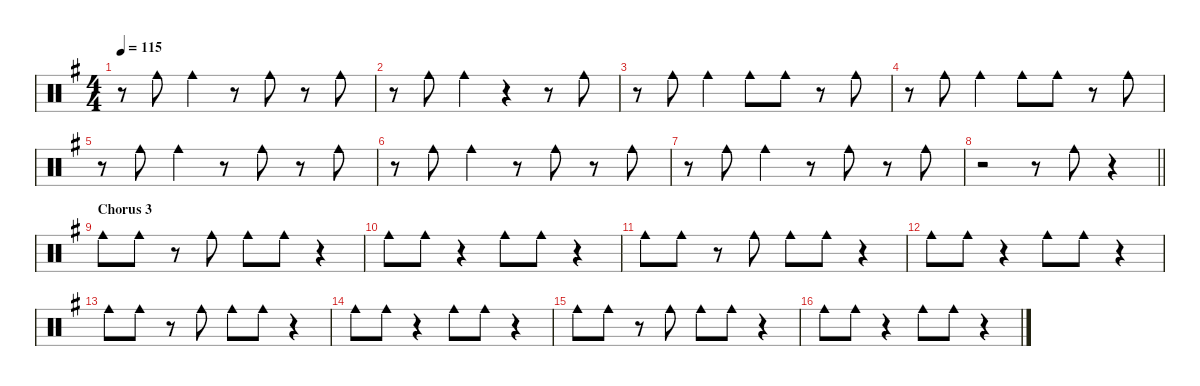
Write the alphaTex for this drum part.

\defaultSystemsLayout 8
\hideDynamics
\bracketExtendMode nobrackets
\singleTrackTrackNamePolicy hidden
\multiTrackTrackNamePolicy hidden
\otherSystemsTrackNameOrientation horizontal
\track ("Cowbell" "drm.") {defaultSystemsLayout 8 instrument percussion}
\staff {score}
\articulation defaults
\ts (4 4)
\tempo 115
\clef neutral
\ks g
r.8{dy f beam Down} "Cowbell medium (hit)"{acc forcenatural}.8{beam Down} "Cowbell medium (hit)"{acc forcenatural}.4{beam Down} r.8{beam Down} "Cowbell medium (hit)"{acc forcenatural}.8{beam Down} r.8{beam Down} "Cowbell medium (hit)"{acc forcenatural}.8{beam Down} |
r.8{beam Down} "Cowbell medium (hit)"{acc forcenatural}.8{beam Down} "Cowbell medium (hit)"{acc forcenatural}.4{beam Down} r.4{beam Down} r.8{beam Down} "Cowbell medium (hit)"{acc forcenatural}.8{beam Down} |
r.8{beam Down} "Cowbell medium (hit)"{acc forcenatural}.8{beam Down} "Cowbell medium (hit)"{acc forcenatural}.4{beam Down} "Cowbell medium (hit)"{acc forcenatural}.8{beam Down} "Cowbell medium (hit)"{acc forcenatural}.8{beam Down} r.8{beam Down} "Cowbell medium (hit)"{acc forcenatural}.8{beam Down} |
r.8{beam Down} "Cowbell medium (hit)"{acc forcenatural}.8{beam Down} "Cowbell medium (hit)"{acc forcenatural}.4{beam Down} "Cowbell medium (hit)"{acc forcenatural}.8{beam Down} "Cowbell medium (hit)"{acc forcenatural}.8{beam Down} r.8{beam Down} "Cowbell medium (hit)"{acc forcenatural}.8{beam Down} |
r.8{beam Down} "Cowbell medium (hit)"{acc forcenatural}.8{beam Down} "Cowbell medium (hit)"{acc forcenatural}.4{beam Down} r.8{beam Down} "Cowbell medium (hit)"{acc forcenatural}.8{beam Down} r.8{beam Down} "Cowbell medium (hit)"{acc forcenatural}.8{beam Down} |
r.8{beam Down} "Cowbell medium (hit)"{acc forcenatural}.8{beam Down} "Cowbell medium (hit)"{acc forcenatural}.4{beam Down} r.8{beam Down} "Cowbell medium (hit)"{acc forcenatural}.8{beam Down} r.8{beam Down} "Cowbell medium (hit)"{acc forcenatural}.8{beam Down} |
r.8{beam Down} "Cowbell medium (hit)"{acc forcenatural}.8{beam Down} "Cowbell medium (hit)"{acc forcenatural}.4{beam Down} r.8{beam Down} "Cowbell medium (hit)"{acc forcenatural}.8{beam Down} r.8{beam Down} "Cowbell medium (hit)"{acc forcenatural}.8{beam Down} |
\barLineRight lightlight
r.2{beam Down} r.8{beam Down} "Cowbell medium (hit)"{acc forcenatural}.8{beam Down} r.4{beam Down} |
\section ("" "Chorus 3")
"Cowbell medium (hit)"{acc forcenatural}.8{beam Down} "Cowbell medium (hit)"{acc forcenatural}.8{beam Down} r.8{beam Down} "Cowbell medium (hit)"{acc forcenatural}.8{beam Down} "Cowbell medium (hit)"{acc forcenatural}.8{beam Down} "Cowbell medium (hit)"{acc forcenatural}.8{beam Down} r.4{beam Down} |
"Cowbell medium (hit)"{acc forcenatural}.8{beam Down} "Cowbell medium (hit)"{acc forcenatural}.8{beam Down} r.4{beam Down} "Cowbell medium (hit)"{acc forcenatural}.8{beam Down} "Cowbell medium (hit)"{acc forcenatural}.8{beam Down} r.4{beam Down} |
"Cowbell medium (hit)"{acc forcenatural}.8{beam Down} "Cowbell medium (hit)"{acc forcenatural}.8{beam Down} r.8{beam Down} "Cowbell medium (hit)"{acc forcenatural}.8{beam Down} "Cowbell medium (hit)"{acc forcenatural}.8{beam Down} "Cowbell medium (hit)"{acc forcenatural}.8{beam Down} r.4{beam Down} |
"Cowbell medium (hit)"{acc forcenatural}.8{beam Down} "Cowbell medium (hit)"{acc forcenatural}.8{beam Down} r.4{beam Down} "Cowbell medium (hit)"{acc forcenatural}.8{beam Down} "Cowbell medium (hit)"{acc forcenatural}.8{beam Down} r.4{beam Down} |
"Cowbell medium (hit)"{acc forcenatural}.8{beam Down} "Cowbell medium (hit)"{acc forcenatural}.8{beam Down} r.8{beam Down} "Cowbell medium (hit)"{acc forcenatural}.8{beam Down} "Cowbell medium (hit)"{acc forcenatural}.8{beam Down} "Cowbell medium (hit)"{acc forcenatural}.8{beam Down} r.4{beam Down} |
"Cowbell medium (hit)"{acc forcenatural}.8{beam Down} "Cowbell medium (hit)"{acc forcenatural}.8{beam Down} r.4{beam Down} "Cowbell medium (hit)"{acc forcenatural}.8{beam Down} "Cowbell medium (hit)"{acc forcenatural}.8{beam Down} r.4{beam Down} |
"Cowbell medium (hit)"{acc forcenatural}.8{beam Down} "Cowbell medium (hit)"{acc forcenatural}.8{beam Down} r.8{beam Down} "Cowbell medium (hit)"{acc forcenatural}.8{beam Down} "Cowbell medium (hit)"{acc forcenatural}.8{beam Down} "Cowbell medium (hit)"{acc forcenatural}.8{beam Down} r.4{beam Down} |
"Cowbell medium (hit)"{acc forcenatural}.8{beam Down} "Cowbell medium (hit)"{acc forcenatural}.8{beam Down} r.4{beam Down} "Cowbell medium (hit)"{acc forcenatural}.8{beam Down} "Cowbell medium (hit)"{acc forcenatural}.8{beam Down} r.4{beam Down}
